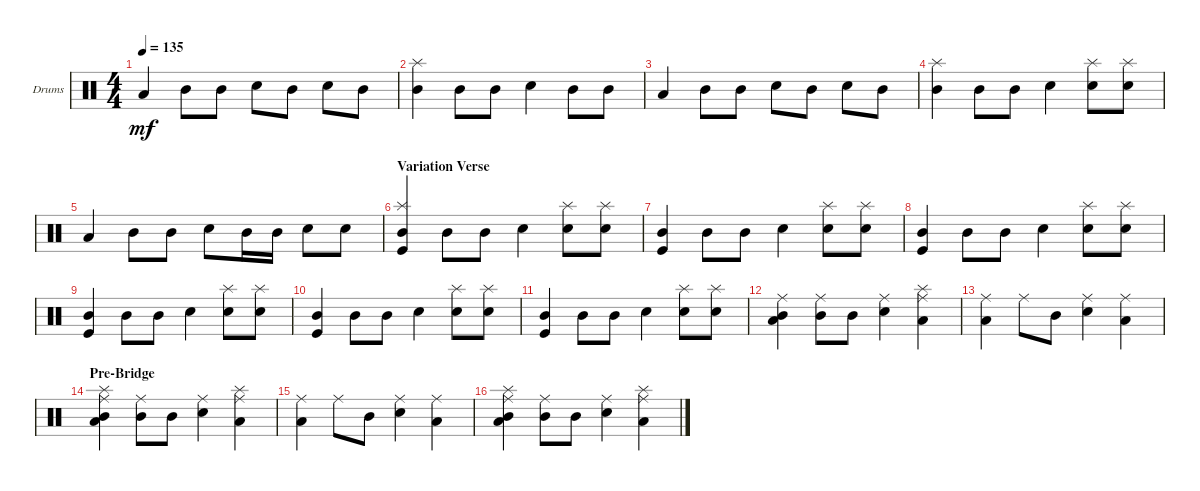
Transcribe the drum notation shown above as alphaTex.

\defaultSystemsLayout 4
\bracketExtendMode groupsimilarinstruments
\firstSystemTrackNameOrientation horizontal
\otherSystemsTrackNameOrientation horizontal
\track ("Drum" "Drums") {instrument percussion}
\staff {score}
\articulation defaults
\ts (4 4)
\tempo 135
\clef neutral
\scale
0.333333
\ks c "Low Tom (hit)".4{dy mf} "Mid Tom (hit)".8 "Mid Tom (hit)".8 "Snare (hit) 2".8 "Mid Tom (hit)".8 "Snare (hit) 2".8 "Mid Tom (hit)".8
|
\scale
0.333333 ("Splash (hit)" "Mid Tom (hit)").4 "Mid Tom (hit)".8 "Mid Tom (hit)".8 "Snare (hit) 2".4 "Mid Tom (hit)".8 "Mid Tom (hit)".8 |
\scale
0.333333 "Low Tom (hit)".4 "Mid Tom (hit)".8 "Mid Tom (hit)".8 "Snare (hit) 2".8 "Mid Tom (hit)".8 "Snare (hit) 2".8 "Mid Tom (hit)".8 |
\scale
0.333333 ("Splash (hit)" "Mid Tom (hit)").4 "Mid Tom (hit)".8 "Mid Tom (hit)".8 "Snare (hit) 2".4 ("Splash (hit)" "Snare (hit) 2").8 ("Splash (hit)" "Snare (hit) 2").8 |
\scale
0.333333 "Low Tom (hit)".4 "Mid Tom (hit)".8 "Mid Tom (hit)".8 "Snare (hit) 2".8 "Mid Tom (hit)".16 "Mid Tom (hit)".16 "Snare (hit) 2".8 "Snare (hit) 2".8 |
\section ("" "Variation Verse")
\scale
0.333333 ("Splash (hit)" "Mid Tom (hit)" "Kick (hit)").4 "Mid Tom (hit)".8 "Mid Tom (hit)".8 "Snare (hit) 2".4 ("Splash (hit)" "Snare (hit) 2").8 ("Splash (hit)" "Snare (hit) 2").8 |
\scale
0.333333 ("Mid Tom (hit)" "Kick (hit)").4 "Mid Tom (hit)".8 "Mid Tom (hit)".8 "Snare (hit) 2".4 ("Splash (hit)" "Snare (hit) 2").8 ("Splash (hit)" "Snare (hit) 2").8 |
\scale
0.333333 ("Mid Tom (hit)" "Kick (hit)").4 "Mid Tom (hit)".8 "Mid Tom (hit)".8 "Snare (hit) 2".4 ("Splash (hit)" "Snare (hit) 2").8 ("Splash (hit)" "Snare (hit) 2").8 |
\scale
0.333333 ("Mid Tom (hit)" "Kick (hit)").4 "Mid Tom (hit)".8 "Mid Tom (hit)".8 "Snare (hit) 2".4 ("Splash (hit)" "Snare (hit) 2").8 ("Splash (hit)" "Snare (hit) 2").8 |
\scale
0.333333 ("Mid Tom (hit)" "Kick (hit)").4 "Mid Tom (hit)".8 "Mid Tom (hit)".8 "Snare (hit) 2".4 ("Splash (hit)" "Snare (hit) 2").8 ("Splash (hit)" "Snare (hit) 2").8 |
\scale
0.333333 ("Mid Tom (hit)" "Kick (hit)").4 "Mid Tom (hit)".8 "Mid Tom (hit)".8 "Snare (hit) 2".4 ("Splash (hit)" "Snare (hit) 2").8 ("Splash (hit)" "Snare (hit) 2").8 |
\scale
0.333333 ("Mid Tom (hit)" "Low Tom (hit)" "Ride (middle)").4 ("Ride (middle)" "Mid Tom (hit)").8 "Mid Tom (hit)".8 ("Ride (middle)" "Snare (hit) 2").4 ("Ride (middle)" "Low Tom (hit)" "Splash (hit)").4 |
\scale
0.333333 ("Ride (middle)" "Low Tom (hit)").4 "Ride (middle)".8 "Mid Tom (hit)".8 ("Ride (middle)" "Snare (hit) 2").4 ("Ride (middle)" "Low Tom (hit)").4 |
\section ("" "Pre-Bridge")
\scale
0.333333 ("Mid Tom (hit)" "Low Tom (hit)" "Ride (middle)" "Splash (hit)").4 ("Ride (middle)" "Mid Tom (hit)").8 "Mid Tom (hit)".8 ("Ride (middle)" "Snare (hit) 2").4 ("Ride (middle)" "Low Tom (hit)" "Splash (hit)").4 |
\scale
0.333333 ("Ride (middle)" "Low Tom (hit)").4 "Ride (middle)".8 "Mid Tom (hit)".8 ("Ride (middle)" "Snare (hit) 2").4 ("Ride (middle)" "Low Tom (hit)").4 |
\scale
0.333333 ("Mid Tom (hit)" "Low Tom (hit)" "Ride (middle)" "Splash (hit)").4 ("Ride (middle)" "Mid Tom (hit)").8 "Mid Tom (hit)".8 ("Ride (middle)" "Snare (hit) 2").4 ("Ride (middle)" "Low Tom (hit)" "Splash (hit)").4
